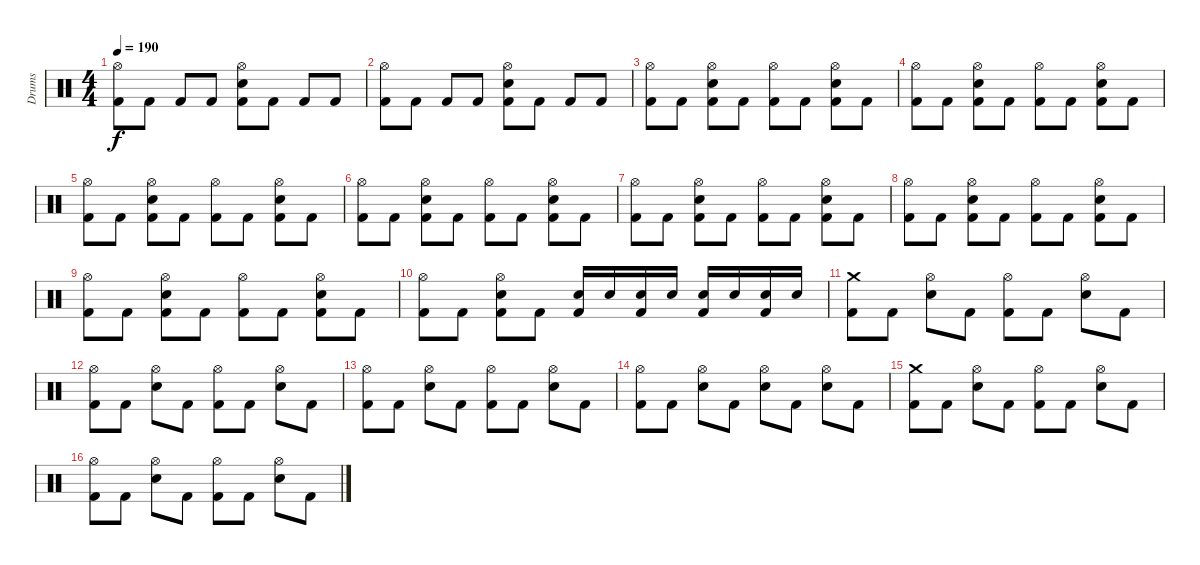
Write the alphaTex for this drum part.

\track ("Drums" "Drums") {instrument percussion}
\staff {score}
\articulation defaults
\ts (4 4)
\tempo 190
\clef neutral
\ks c
("Hi-Hat (open)" "Kick (hit) 2").8{dy f} "Kick (hit) 2".8 "Kick (hit) 2".8 "Kick (hit) 2".8 ("Hi-Hat (open)" "Kick (hit) 2" "Snare (hit) 2").8 "Kick (hit) 2".8 "Kick (hit) 2".8 "Kick (hit) 2".8 |
("Hi-Hat (open)" "Kick (hit) 2").8 "Kick (hit) 2".8 "Kick (hit) 2".8 "Kick (hit) 2".8 ("Hi-Hat (open)" "Kick (hit) 2" "Snare (hit) 2").8 "Kick (hit) 2".8 "Kick (hit) 2".8 "Kick (hit) 2".8 |
("Hi-Hat (open)" "Kick (hit) 2").8 "Kick (hit) 2".8 ("Hi-Hat (open)" "Kick (hit) 2" "Snare (hit) 2").8 "Kick (hit) 2".8 ("Hi-Hat (open)" "Kick (hit) 2").8 "Kick (hit) 2".8 ("Hi-Hat (open)" "Kick (hit) 2" "Snare (hit) 2").8 "Kick (hit) 2".8 |
("Hi-Hat (open)" "Kick (hit) 2").8 "Kick (hit) 2".8 ("Hi-Hat (open)" "Kick (hit) 2" "Snare (hit) 2").8 "Kick (hit) 2".8 ("Hi-Hat (open)" "Kick (hit) 2").8 "Kick (hit) 2".8 ("Hi-Hat (open)" "Kick (hit) 2" "Snare (hit) 2").8 "Kick (hit) 2".8 |
("Hi-Hat (open)" "Kick (hit) 2").8 "Kick (hit) 2".8 ("Hi-Hat (open)" "Kick (hit) 2" "Snare (hit) 2").8 "Kick (hit) 2".8 ("Hi-Hat (open)" "Kick (hit) 2").8 "Kick (hit) 2".8 ("Hi-Hat (open)" "Kick (hit) 2" "Snare (hit) 2").8 "Kick (hit) 2".8 |
("Hi-Hat (open)" "Kick (hit) 2").8 "Kick (hit) 2".8 ("Hi-Hat (open)" "Kick (hit) 2" "Snare (hit) 2").8 "Kick (hit) 2".8 ("Hi-Hat (open)" "Kick (hit) 2").8 "Kick (hit) 2".8 ("Hi-Hat (open)" "Kick (hit) 2" "Snare (hit) 2").8 "Kick (hit) 2".8 |
("Hi-Hat (open)" "Kick (hit) 2").8 "Kick (hit) 2".8 ("Hi-Hat (open)" "Kick (hit) 2" "Snare (hit) 2").8 "Kick (hit) 2".8 ("Hi-Hat (open)" "Kick (hit) 2").8 "Kick (hit) 2".8 ("Hi-Hat (open)" "Kick (hit) 2" "Snare (hit) 2").8 "Kick (hit) 2".8 |
("Hi-Hat (open)" "Kick (hit) 2").8 "Kick (hit) 2".8 ("Hi-Hat (open)" "Kick (hit) 2" "Snare (hit) 2").8 "Kick (hit) 2".8 ("Hi-Hat (open)" "Kick (hit) 2").8 "Kick (hit) 2".8 ("Hi-Hat (open)" "Kick (hit) 2" "Snare (hit) 2").8 "Kick (hit) 2".8 |
("Hi-Hat (open)" "Kick (hit) 2").8 "Kick (hit) 2".8 ("Hi-Hat (open)" "Kick (hit) 2" "Snare (hit) 2").8 "Kick (hit) 2".8 ("Hi-Hat (open)" "Kick (hit) 2").8 "Kick (hit) 2".8 ("Hi-Hat (open)" "Kick (hit) 2" "Snare (hit) 2").8 "Kick (hit) 2".8 |
("Hi-Hat (open)" "Kick (hit) 2").8 "Kick (hit) 2".8 ("Hi-Hat (open)" "Kick (hit) 2" "Snare (hit) 2").8 "Kick (hit) 2".8 ("Kick (hit) 2" "Snare (hit) 2").16 "Snare (hit) 2".16 ("Kick (hit) 2" "Snare (hit) 2").16 "Snare (hit) 2".16 ("Kick (hit) 2" "Snare (hit) 2").16 "Snare (hit) 2".16 ("Kick (hit) 2" "Snare (hit) 2").16 "Snare (hit) 2".16 |
("Crash medium (hit)" "Kick (hit) 2").8 "Kick (hit) 2".8 ("Hi-Hat (open)" "Snare (hit) 2").8 "Kick (hit) 2".8 ("Hi-Hat (open)" "Kick (hit) 2").8 "Kick (hit) 2".8 ("Hi-Hat (open)" "Snare (hit) 2").8 "Kick (hit) 2".8 |
("Hi-Hat (open)" "Kick (hit) 2").8 "Kick (hit) 2".8 ("Hi-Hat (open)" "Snare (hit) 2").8 "Kick (hit) 2".8 ("Hi-Hat (open)" "Kick (hit) 2").8 "Kick (hit) 2".8 ("Hi-Hat (open)" "Snare (hit) 2").8 "Kick (hit) 2".8 |
("Hi-Hat (open)" "Kick (hit) 2").8 "Kick (hit) 2".8 ("Hi-Hat (open)" "Snare (hit) 2").8 "Kick (hit) 2".8 ("Hi-Hat (open)" "Kick (hit) 2").8 "Kick (hit) 2".8 ("Hi-Hat (open)" "Snare (hit) 2").8 "Kick (hit) 2".8 |
("Hi-Hat (open)" "Kick (hit) 2").8 "Kick (hit) 2".8 ("Hi-Hat (open)" "Snare (hit) 2").8 "Kick (hit) 2".8 ("Hi-Hat (open)" "Snare (hit) 2").8 "Kick (hit) 2".8 ("Hi-Hat (open)" "Snare (hit) 2").8 "Kick (hit) 2".8 |
("Crash medium (hit)" "Kick (hit) 2").8 "Kick (hit) 2".8 ("Hi-Hat (open)" "Snare (hit) 2").8 "Kick (hit) 2".8 ("Hi-Hat (open)" "Kick (hit) 2").8 "Kick (hit) 2".8 ("Hi-Hat (open)" "Snare (hit) 2").8 "Kick (hit) 2".8 |
("Hi-Hat (open)" "Kick (hit) 2").8 "Kick (hit) 2".8 ("Hi-Hat (open)" "Snare (hit) 2").8 "Kick (hit) 2".8 ("Hi-Hat (open)" "Kick (hit) 2").8 "Kick (hit) 2".8 ("Hi-Hat (open)" "Snare (hit) 2").8 "Kick (hit) 2".8
